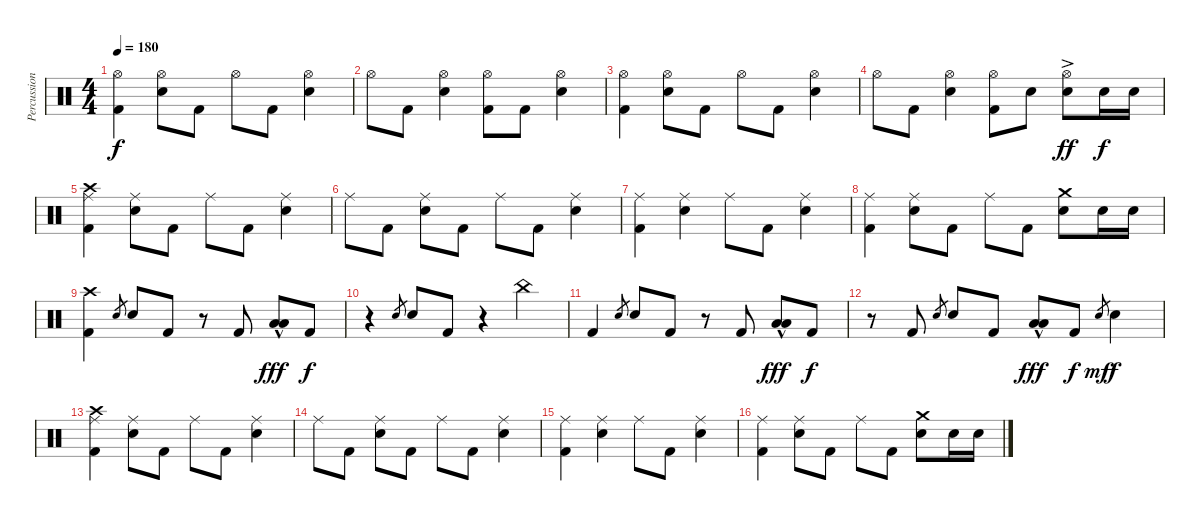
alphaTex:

\track ("Percussion" "Percussion") {instrument percussion}
\staff {score}
\articulation defaults
\ts (4 4)
\tempo 180
\clef neutral
\ks c
("Hi-Hat (open)" "Kick (hit) 2").4{dy f} ("Hi-Hat (open)" "Electric Snare (hit)").8 "Kick (hit) 2".8 "Hi-Hat (open)".8 "Kick (hit) 2".8 ("Hi-Hat (open)" "Electric Snare (hit)").4 |
"Hi-Hat (open)".8 "Kick (hit) 2".8 ("Hi-Hat (open)" "Electric Snare (hit)").4 ("Hi-Hat (open)" "Kick (hit) 2").8 "Kick (hit) 2".8 ("Hi-Hat (open)" "Electric Snare (hit)").4 |
("Hi-Hat (open)" "Kick (hit) 2").4 ("Hi-Hat (open)" "Electric Snare (hit)").8 "Kick (hit) 2".8 "Hi-Hat (open)".8 "Kick (hit) 2".8 ("Hi-Hat (open)" "Electric Snare (hit)").4 |
"Hi-Hat (open)".8 "Kick (hit) 2".8 ("Hi-Hat (open)" "Electric Snare (hit)").4 ("Hi-Hat (open)" "Kick (hit) 2").8 "Electric Snare (hit)".8 ("Hi-Hat (open)" "Electric Snare (hit)"{ac}).8{dy ff} "Electric Snare (hit)".16{dy f} "Electric Snare (hit)".16 |
("Ride (middle)" "Crash high (hit)" "Kick (hit) 2").4 ("Ride (middle)" "Electric Snare (hit)").8 "Kick (hit) 2".8 "Ride (middle)".8 "Kick (hit) 2".8 ("Ride (middle)" "Electric Snare (hit)").4 |
"Ride (middle)".8 "Kick (hit) 2".8 ("Ride (middle)" "Electric Snare (hit)").8 "Kick (hit) 2".8 "Ride (middle)".8 "Kick (hit) 2".8 ("Ride (middle)" "Electric Snare (hit)").4 |
("Ride (middle)" "Kick (hit) 2").4 ("Ride (middle)" "Electric Snare (hit)").4 "Ride (middle)".8 "Kick (hit) 2".8 ("Ride (middle)" "Electric Snare (hit)").4 |
("Ride (middle)" "Kick (hit) 2").4 ("Ride (middle)" "Electric Snare (hit)").8 "Kick (hit) 2".8 "Ride (middle)".8 "Kick (hit) 2".8 ("Crash medium (hit)" "Electric Snare (hit)").8 "Electric Snare (hit)".16 "Electric Snare (hit)".16 |
("Crash high (hit)" "Kick (hit) 2").4 "Electric Snare (hit)".8{gr} "Electric Snare (hit)".8 "Kick (hit) 2".8 r.8 "Kick (hit) 2".8 ("Low Tom (hit)"{hac} "Low Floor Tom (hit)"{hac}).8{dy fff} "Kick (hit) 2".8{dy f} |
r.4 "Electric Snare (hit)".8{gr} "Electric Snare (hit)".8 "Kick (hit) 2".8 r.4 "China (hit)".4 |
"Kick (hit) 2".4 "Electric Snare (hit)".8{gr} "Electric Snare (hit)".8 "Kick (hit) 2".8 r.8 "Kick (hit) 2".8 ("Low Tom (hit)"{hac} "Low Floor Tom (hit)"{hac}).8{dy fff} "Kick (hit) 2".8{dy f} |
r.8 "Kick (hit) 2".8 "Electric Snare (hit)".8{gr} "Electric Snare (hit)".8 "Kick (hit) 2".8 ("Low Tom (hit)"{hac} "Low Floor Tom (hit)"{hac}).8{dy fff} "Kick (hit) 2".8{dy f} "Electric Snare (hit)".8{gr dy mf} "Electric Snare (hit)".4{dy f} |
("Ride (middle)" "Crash high (hit)" "Kick (hit) 2").4 ("Ride (middle)" "Electric Snare (hit)").8 "Kick (hit) 2".8 "Ride (middle)".8 "Kick (hit) 2".8 ("Ride (middle)" "Electric Snare (hit)").4 |
"Ride (middle)".8 "Kick (hit) 2".8 ("Ride (middle)" "Electric Snare (hit)").8 "Kick (hit) 2".8 "Ride (middle)".8 "Kick (hit) 2".8 ("Ride (middle)" "Electric Snare (hit)").4 |
("Ride (middle)" "Kick (hit) 2").4 ("Ride (middle)" "Electric Snare (hit)").4 "Ride (middle)".8 "Kick (hit) 2".8 ("Ride (middle)" "Electric Snare (hit)").4 |
("Ride (middle)" "Kick (hit) 2").4 ("Ride (middle)" "Electric Snare (hit)").8 "Kick (hit) 2".8 "Ride (middle)".8 "Kick (hit) 2".8 ("Crash medium (hit)" "Electric Snare (hit)").8 "Electric Snare (hit)".16 "Electric Snare (hit)".16
